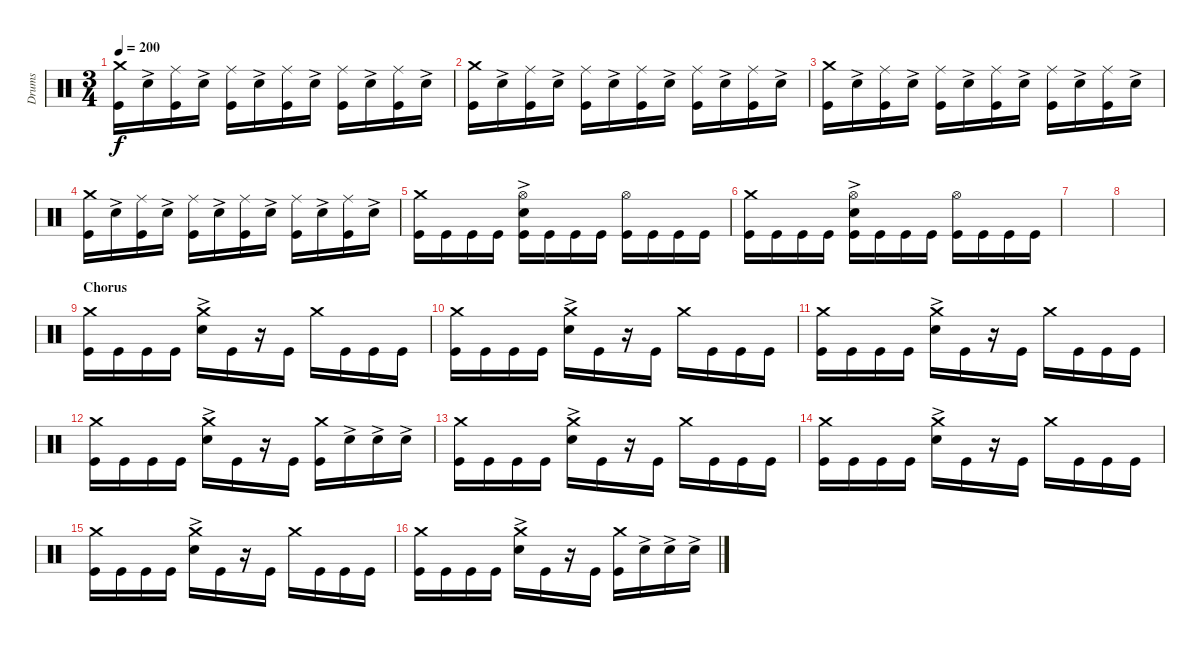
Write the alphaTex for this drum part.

\track ("Drums" "Drums") {instrument percussion}
\staff {score}
\articulation defaults
\ts (3 4)
\tempo 200
\clef neutral
\ks c
("Kick (hit)" "Crash medium (hit)").16{dy f} "Snare (hit) 2"{ac}.16 ("Kick (hit)" "Ride (middle)").16 "Snare (hit) 2"{ac}.16 ("Kick (hit)" "Ride (middle)").16 "Snare (hit) 2"{ac}.16 ("Kick (hit)" "Ride (middle)").16 "Snare (hit) 2"{ac}.16 ("Kick (hit)" "Ride (middle)").16 "Snare (hit) 2"{ac}.16 ("Kick (hit)" "Ride (middle)").16 "Snare (hit) 2"{ac}.16 |
("Kick (hit)" "Crash medium (hit)").16 "Snare (hit) 2"{ac}.16 ("Kick (hit)" "Ride (middle)").16 "Snare (hit) 2"{ac}.16 ("Kick (hit)" "Ride (middle)").16 "Snare (hit) 2"{ac}.16 ("Kick (hit)" "Ride (middle)").16 "Snare (hit) 2"{ac}.16 ("Kick (hit)" "Ride (middle)").16 "Snare (hit) 2"{ac}.16 ("Kick (hit)" "Ride (middle)").16 "Snare (hit) 2"{ac}.16 |
("Kick (hit)" "Crash medium (hit)").16 "Snare (hit) 2"{ac}.16 ("Kick (hit)" "Ride (middle)").16 "Snare (hit) 2"{ac}.16 ("Kick (hit)" "Ride (middle)").16 "Snare (hit) 2"{ac}.16 ("Kick (hit)" "Ride (middle)").16 "Snare (hit) 2"{ac}.16 ("Kick (hit)" "Ride (middle)").16 "Snare (hit) 2"{ac}.16 ("Kick (hit)" "Ride (middle)").16 "Snare (hit) 2"{ac}.16 |
("Kick (hit)" "Crash medium (hit)").16 "Snare (hit) 2"{ac}.16 ("Kick (hit)" "Ride (middle)").16 "Snare (hit) 2"{ac}.16 ("Kick (hit)" "Ride (middle)").16 "Snare (hit) 2"{ac}.16 ("Kick (hit)" "Ride (middle)").16 "Snare (hit) 2"{ac}.16 ("Kick (hit)" "Ride (middle)").16 "Snare (hit) 2"{ac}.16 ("Kick (hit)" "Ride (middle)").16 "Snare (hit) 2"{ac}.16 |
("Kick (hit)" "Crash medium (hit)").16 "Kick (hit)".16 "Kick (hit)".16 "Kick (hit)".16 ("Kick (hit)" "Hi-Hat (open)" "Snare (hit) 2"{ac}).16 "Kick (hit)".16 "Kick (hit)".16 "Kick (hit)".16 ("Kick (hit)" "Hi-Hat (open)").16 "Kick (hit)".16 "Kick (hit)".16 "Kick (hit)".16 |
("Kick (hit)" "Crash medium (hit)").16 "Kick (hit)".16 "Kick (hit)".16 "Kick (hit)".16 ("Kick (hit)" "Hi-Hat (open)" "Snare (hit) 2"{ac}).16 "Kick (hit)".16 "Kick (hit)".16 "Kick (hit)".16 ("Kick (hit)" "Hi-Hat (open)").16 "Kick (hit)".16 "Kick (hit)".16 "Kick (hit)".16 |
|
|
\section ("" "Chorus")
("Crash medium (hit)" "Kick (hit)").16 "Kick (hit)".16 "Kick (hit)".16 "Kick (hit)".16 ("Crash medium (hit)" "Snare (hit) 2"{ac}).16 "Kick (hit)".16 r.16 "Kick (hit)".16 "Crash medium (hit)".16 "Kick (hit)".16 "Kick (hit)".16 "Kick (hit)".16 |
("Crash medium (hit)" "Kick (hit)").16 "Kick (hit)".16 "Kick (hit)".16 "Kick (hit)".16 ("Crash medium (hit)" "Snare (hit) 2"{ac}).16 "Kick (hit)".16 r.16 "Kick (hit)".16 "Crash medium (hit)".16 "Kick (hit)".16 "Kick (hit)".16 "Kick (hit)".16 |
("Crash medium (hit)" "Kick (hit)").16 "Kick (hit)".16 "Kick (hit)".16 "Kick (hit)".16 ("Crash medium (hit)" "Snare (hit) 2"{ac}).16 "Kick (hit)".16 r.16 "Kick (hit)".16 "Crash medium (hit)".16 "Kick (hit)".16 "Kick (hit)".16 "Kick (hit)".16 |
("Crash medium (hit)" "Kick (hit)").16 "Kick (hit)".16 "Kick (hit)".16 "Kick (hit)".16 ("Crash medium (hit)" "Snare (hit) 2"{ac}).16 "Kick (hit)".16 r.16 "Kick (hit)".16 ("Kick (hit)" "Crash medium (hit)").16 "Snare (hit) 2"{ac}.16 "Snare (hit) 2"{ac}.16 "Snare (hit) 2"{ac}.16 |
("Crash medium (hit)" "Kick (hit)").16 "Kick (hit)".16 "Kick (hit)".16 "Kick (hit)".16 ("Crash medium (hit)" "Snare (hit) 2"{ac}).16 "Kick (hit)".16 r.16 "Kick (hit)".16 "Crash medium (hit)".16 "Kick (hit)".16 "Kick (hit)".16 "Kick (hit)".16 |
("Crash medium (hit)" "Kick (hit)").16 "Kick (hit)".16 "Kick (hit)".16 "Kick (hit)".16 ("Crash medium (hit)" "Snare (hit) 2"{ac}).16 "Kick (hit)".16 r.16 "Kick (hit)".16 "Crash medium (hit)".16 "Kick (hit)".16 "Kick (hit)".16 "Kick (hit)".16 |
("Crash medium (hit)" "Kick (hit)").16 "Kick (hit)".16 "Kick (hit)".16 "Kick (hit)".16 ("Crash medium (hit)" "Snare (hit) 2"{ac}).16 "Kick (hit)".16 r.16 "Kick (hit)".16 "Crash medium (hit)".16 "Kick (hit)".16 "Kick (hit)".16 "Kick (hit)".16 |
("Crash medium (hit)" "Kick (hit)").16 "Kick (hit)".16 "Kick (hit)".16 "Kick (hit)".16 ("Crash medium (hit)" "Snare (hit) 2"{ac}).16 "Kick (hit)".16 r.16 "Kick (hit)".16 ("Kick (hit)" "Crash medium (hit)").16 "Snare (hit) 2"{ac}.16 "Snare (hit) 2"{ac}.16 "Snare (hit) 2"{ac}.16
